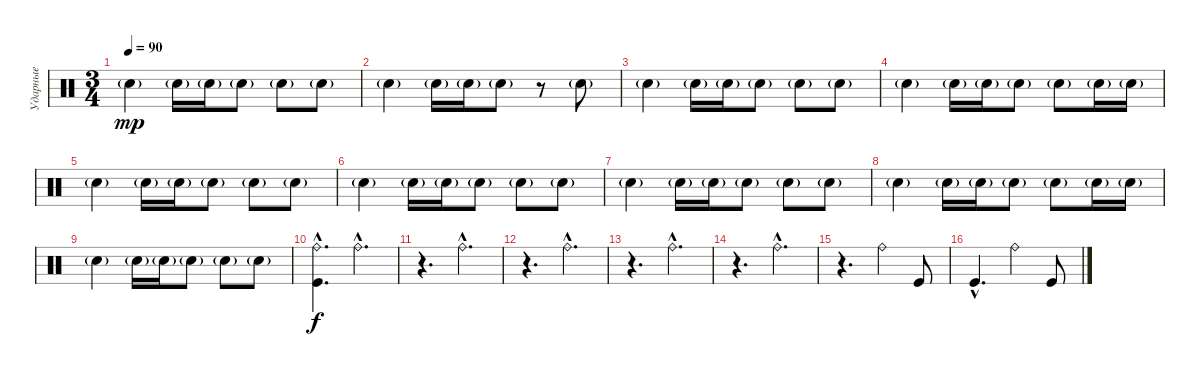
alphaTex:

\track ("Ударные" "Ударные") {instrument percussion}
\staff {score}
\articulation defaults
\ts (3 4)
\tempo 90
\clef neutral
\ks c "Electric Snare (hit)"{g}.4{dy mp} "Electric Snare (hit)"{g}.16 "Electric Snare (hit)"{g}.16 "Electric Snare (hit)"{g}.8 "Electric Snare (hit)"{g}.8 "Electric Snare (hit)"{g}.8
|
"Electric Snare (hit)"{g}.4 "Electric Snare (hit)"{g}.16 "Electric Snare (hit)"{g}.16 "Electric Snare (hit)"{g}.8 r.8 "Electric Snare (hit)"{g}.8 |
"Electric Snare (hit)"{g}.4 "Electric Snare (hit)"{g}.16 "Electric Snare (hit)"{g}.16 "Electric Snare (hit)"{g}.8 "Electric Snare (hit)"{g}.8 "Electric Snare (hit)"{g}.8 |
"Electric Snare (hit)"{g}.4 "Electric Snare (hit)"{g}.16 "Electric Snare (hit)"{g}.16 "Electric Snare (hit)"{g}.8 "Electric Snare (hit)"{g}.8 "Electric Snare (hit)"{g}.16 "Electric Snare (hit)"{g}.16 |
"Electric Snare (hit)"{g}.4 "Electric Snare (hit)"{g}.16 "Electric Snare (hit)"{g}.16 "Electric Snare (hit)"{g}.8 "Electric Snare (hit)"{g}.8 "Electric Snare (hit)"{g}.8 |
"Electric Snare (hit)"{g}.4 "Electric Snare (hit)"{g}.16 "Electric Snare (hit)"{g}.16 "Electric Snare (hit)"{g}.8 "Electric Snare (hit)"{g}.8 "Electric Snare (hit)"{g}.8 |
"Electric Snare (hit)"{g}.4 "Electric Snare (hit)"{g}.16 "Electric Snare (hit)"{g}.16 "Electric Snare (hit)"{g}.8 "Electric Snare (hit)"{g}.8 "Electric Snare (hit)"{g}.8 |
"Electric Snare (hit)"{g}.4 "Electric Snare (hit)"{g}.16 "Electric Snare (hit)"{g}.16 "Electric Snare (hit)"{g}.8 "Electric Snare (hit)"{g}.8 "Electric Snare (hit)"{g}.16 "Electric Snare (hit)"{g}.16 |
"Electric Snare (hit)"{g}.4 "Electric Snare (hit)"{g}.16 "Electric Snare (hit)"{g}.16 "Electric Snare (hit)"{g}.8 "Electric Snare (hit)"{g}.8 "Electric Snare (hit)"{g}.8 |
("Ride (bell)"{hac} "Kick (hit)"{hac}).4{d dy f} "Ride (bell)"{hac}.4{d} |
r.4{d} "Ride (bell)"{hac}.4{d} |
r.4{d} "Ride (bell)"{hac}.4{d} |
r.4{d} "Ride (bell)"{hac}.4{d} |
r.4{d} "Ride (bell)"{hac}.4{d} |
r.4{d} "Ride (bell)".4 "Kick (hit)".8 |
"Kick (hit)"{hac}.4{d} "Ride (bell)".4 "Kick (hit)".8
